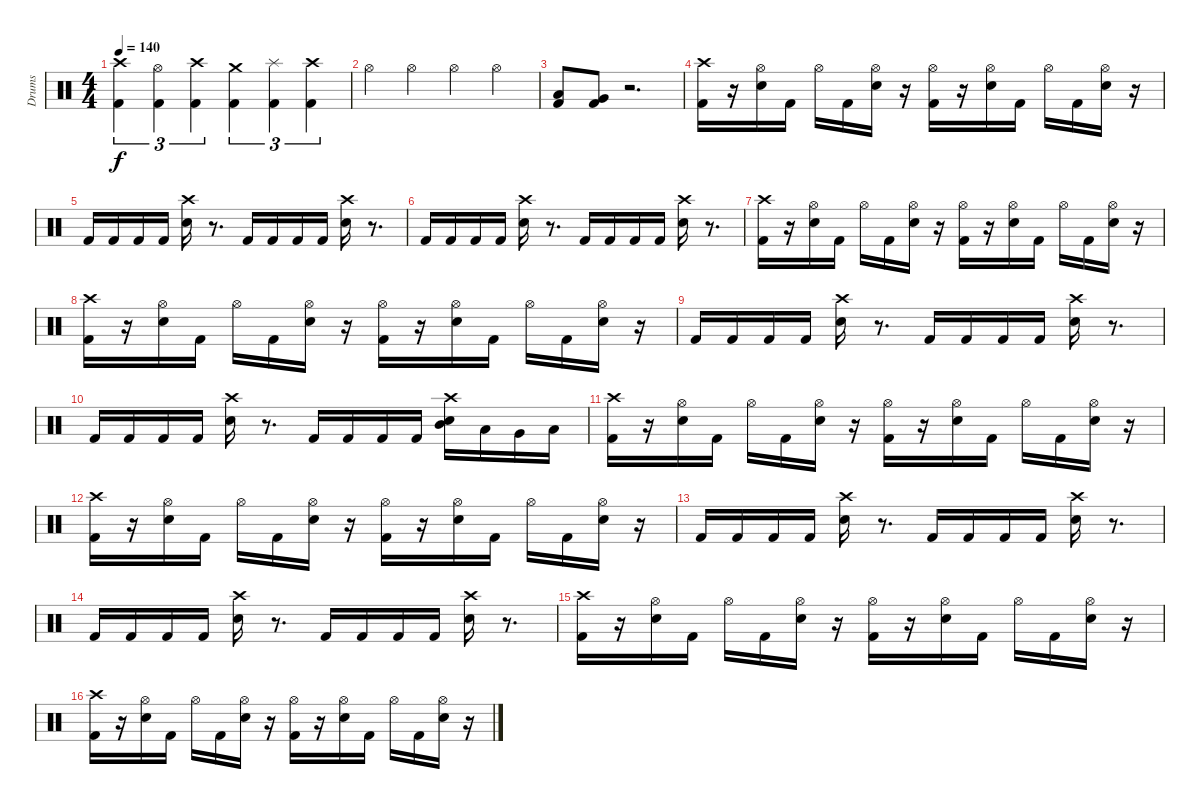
\track ("Drums" "Drums") {instrument percussion}
\staff {score}
\articulation defaults
\ts (4 4)
\tempo 140
\clef neutral
\ks c
("Crash high (hit)" "Kick (hit) 2").4{tu (3 2) dy f} ("Hi-Hat (open)" "Kick (hit) 2").4{tu (3 2)} ("Crash high (hit)" "Kick (hit) 2").4{tu (3 2)} ("Crash medium (hit)" "Kick (hit) 2").4{tu (3 2)} ("Splash (hit)" "Kick (hit) 2").4{tu (3 2)} ("Crash high (hit)" "Kick (hit) 2").4{tu (3 2)} |
"Hi-Hat (open)".4 "Hi-Hat (open)".4 "Hi-Hat (open)".4 "Hi-Hat (open)".4 |
("Low Floor Tom (hit)" "Kick (hit) 2").8 ("Very Low Tom (hit)" "Kick (hit) 2").8 r.2{d} |
("Crash high (hit)" "Kick (hit) 2").16 r.16 ("Hi-Hat (open)" "Electric Snare (hit)").16 "Kick (hit) 2".16 "Hi-Hat (open)".16 "Kick (hit) 2".16 ("Hi-Hat (open)" "Electric Snare (hit)").16 r.16 ("Kick (hit) 2" "Hi-Hat (open)").16 r.16 ("Hi-Hat (open)" "Electric Snare (hit)").16 "Kick (hit) 2".16 "Hi-Hat (open)".16 "Kick (hit) 2".16 ("Hi-Hat (open)" "Electric Snare (hit)").16 r.16 |
"Kick (hit) 2".16 "Kick (hit) 2".16 "Kick (hit) 2".16 "Kick (hit) 2".16 ("Electric Snare (hit)" "Crash high (hit)").16 r.8{d} "Kick (hit) 2".16 "Kick (hit) 2".16 "Kick (hit) 2".16 "Kick (hit) 2".16 ("Crash high (hit)" "Electric Snare (hit)").16 r.8{d} |
"Kick (hit) 2".16 "Kick (hit) 2".16 "Kick (hit) 2".16 "Kick (hit) 2".16 ("Crash high (hit)" "Electric Snare (hit)").16 r.8{d} "Kick (hit) 2".16 "Kick (hit) 2".16 "Kick (hit) 2".16 "Kick (hit) 2".16 ("Electric Snare (hit)" "Crash high (hit)").16 r.8{d} |
("Kick (hit) 2" "Crash high (hit)").16 r.16 ("Hi-Hat (open)" "Electric Snare (hit)").16 "Kick (hit) 2".16 "Hi-Hat (open)".16 "Kick (hit) 2".16 ("Hi-Hat (open)" "Electric Snare (hit)").16 r.16 ("Hi-Hat (open)" "Kick (hit) 2").16 r.16 ("Electric Snare (hit)" "Hi-Hat (open)").16 "Kick (hit) 2".16 "Hi-Hat (open)".16 "Kick (hit) 2".16 ("Electric Snare (hit)" "Hi-Hat (open)").16 r.16 |
("Crash high (hit)" "Kick (hit) 2").16 r.16 ("Hi-Hat (open)" "Electric Snare (hit)").16 "Kick (hit) 2".16 "Hi-Hat (open)".16 "Kick (hit) 2".16 ("Hi-Hat (open)" "Electric Snare (hit)").16 r.16 ("Hi-Hat (open)" "Kick (hit) 2").16 r.16 ("Electric Snare (hit)" "Hi-Hat (open)").16 "Kick (hit) 2".16 "Hi-Hat (open)".16 "Kick (hit) 2".16 ("Electric Snare (hit)" "Hi-Hat (open)").16 r.16 |
"Kick (hit) 2".16 "Kick (hit) 2".16 "Kick (hit) 2".16 "Kick (hit) 2".16 ("Crash high (hit)" "Electric Snare (hit)").16 r.8{d} "Kick (hit) 2".16 "Kick (hit) 2".16 "Kick (hit) 2".16 "Kick (hit) 2".16 ("Electric Snare (hit)" "Crash high (hit)").16 r.8{d} |
"Kick (hit) 2".16 "Kick (hit) 2".16 "Kick (hit) 2".16 "Kick (hit) 2".16 ("Electric Snare (hit)" "Crash high (hit)").16 r.8{d} "Kick (hit) 2".16 "Kick (hit) 2".16 "Kick (hit) 2".16 "Kick (hit) 2".16 ("Mid Tom (hit)" "Crash high (hit)" "Electric Snare (hit)").16 "Low Tom (hit)".16 "Very Low Tom (hit)".16 "Low Floor Tom (hit)".16 |
("Kick (hit) 2" "Crash high (hit)").16 r.16 ("Electric Snare (hit)" "Hi-Hat (open)").16 "Kick (hit) 2".16 "Hi-Hat (open)".16 "Kick (hit) 2".16 ("Electric Snare (hit)" "Hi-Hat (open)").16 r.16 ("Hi-Hat (open)" "Kick (hit) 2").16 r.16 ("Electric Snare (hit)" "Hi-Hat (open)").16 "Kick (hit) 2".16 "Hi-Hat (open)".16 "Kick (hit) 2".16 ("Electric Snare (hit)" "Hi-Hat (open)").16 r.16 |
("Kick (hit) 2" "Crash high (hit)").16 r.16 ("Electric Snare (hit)" "Hi-Hat (open)").16 "Kick (hit) 2".16 "Hi-Hat (open)".16 "Kick (hit) 2".16 ("Electric Snare (hit)" "Hi-Hat (open)").16 r.16 ("Kick (hit) 2" "Hi-Hat (open)").16 r.16 ("Hi-Hat (open)" "Electric Snare (hit)").16 "Kick (hit) 2".16 "Hi-Hat (open)".16 "Kick (hit) 2".16 ("Hi-Hat (open)" "Electric Snare (hit)").16 r.16 |
"Kick (hit) 2".16 "Kick (hit) 2".16 "Kick (hit) 2".16 "Kick (hit) 2".16 ("Crash high (hit)" "Electric Snare (hit)").16 r.8{d} "Kick (hit) 2".16 "Kick (hit) 2".16 "Kick (hit) 2".16 "Kick (hit) 2".16 ("Electric Snare (hit)" "Crash high (hit)").16 r.8{d} |
"Kick (hit) 2".16 "Kick (hit) 2".16 "Kick (hit) 2".16 "Kick (hit) 2".16 ("Crash high (hit)" "Electric Snare (hit)").16 r.8{d} "Kick (hit) 2".16 "Kick (hit) 2".16 "Kick (hit) 2".16 "Kick (hit) 2".16 ("Electric Snare (hit)" "Crash high (hit)").16 r.8{d} |
("Kick (hit) 2" "Crash high (hit)").16 r.16 ("Hi-Hat (open)" "Electric Snare (hit)").16 "Kick (hit) 2".16 "Hi-Hat (open)".16 "Kick (hit) 2".16 ("Hi-Hat (open)" "Electric Snare (hit)").16 r.16 ("Hi-Hat (open)" "Kick (hit) 2").16 r.16 ("Electric Snare (hit)" "Hi-Hat (open)").16 "Kick (hit) 2".16 "Hi-Hat (open)".16 "Kick (hit) 2".16 ("Hi-Hat (open)" "Electric Snare (hit)").16 r.16 |
("Crash high (hit)" "Kick (hit) 2").16 r.16 ("Electric Snare (hit)" "Hi-Hat (open)").16 "Kick (hit) 2".16 "Hi-Hat (open)".16 "Kick (hit) 2".16 ("Hi-Hat (open)" "Electric Snare (hit)").16 r.16 ("Kick (hit) 2" "Hi-Hat (open)").16 r.16 ("Electric Snare (hit)" "Hi-Hat (open)").16 "Kick (hit) 2".16 "Hi-Hat (open)".16 "Kick (hit) 2".16 ("Electric Snare (hit)" "Hi-Hat (open)").16 r.16
